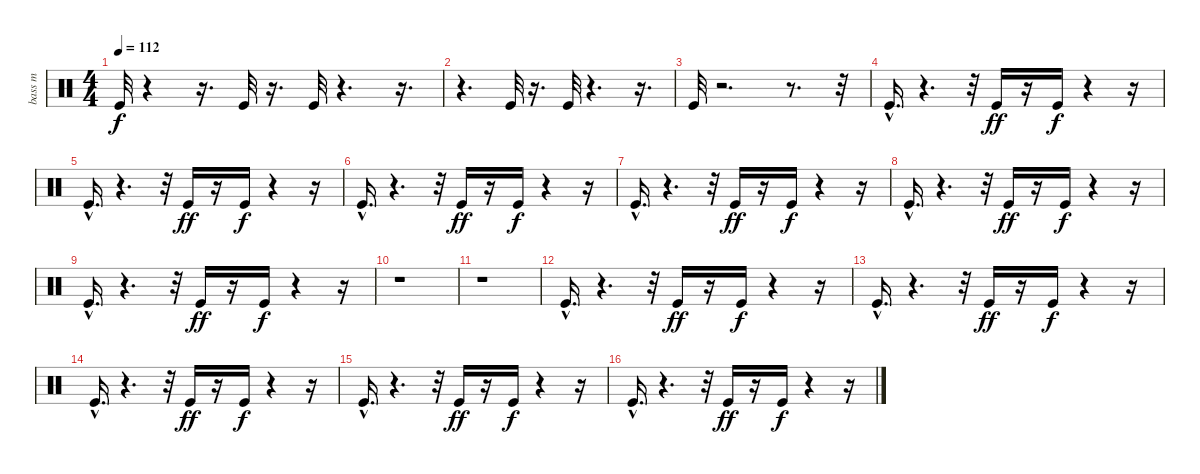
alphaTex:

\track ("bass m" "bass m") {instrument percussion}
\staff {score}
\articulation defaults
\ts (4 4)
\tempo 112
\clef neutral
\ks c "Kick (hit)".32{dy f}
r.4 r.16{d} "Kick (hit)".32 r.16{d} "Kick (hit)".32 r.4{d} r.16{d} |
r.4{d} "Kick (hit)".32 r.16{d} "Kick (hit)".32 r.4{d} r.16{d} |
"Kick (hit)".32 r.2{d} r.8{d} r.32 |
"Kick (hit)"{hac}.16{d} r.4{d} r.32 "Kick (hit)".16{dy ff} r.16 "Kick (hit)".16{dy f} r.4 r.16 |
"Kick (hit)"{hac}.16{d} r.4{d} r.32 "Kick (hit)".16{dy ff} r.16 "Kick (hit)".16{dy f} r.4 r.16 |
"Kick (hit)"{hac}.16{d} r.4{d} r.32 "Kick (hit)".16{dy ff} r.16 "Kick (hit)".16{dy f} r.4 r.16 |
"Kick (hit)"{hac}.16{d} r.4{d} r.32 "Kick (hit)".16{dy ff} r.16 "Kick (hit)".16{dy f} r.4 r.16 |
"Kick (hit)"{hac}.16{d} r.4{d} r.32 "Kick (hit)".16{dy ff} r.16 "Kick (hit)".16{dy f} r.4 r.16 |
"Kick (hit)"{hac}.16{d} r.4{d} r.32 "Kick (hit)".16{dy ff} r.16 "Kick (hit)".16{dy f} r.4 r.16 |
r.1 |
r.1 |
"Kick (hit)"{hac}.16{d} r.4{d} r.32 "Kick (hit)".16{dy ff} r.16 "Kick (hit)".16{dy f} r.4 r.16 |
"Kick (hit)"{hac}.16{d} r.4{d} r.32 "Kick (hit)".16{dy ff} r.16 "Kick (hit)".16{dy f} r.4 r.16 |
"Kick (hit)"{hac}.16{d} r.4{d} r.32 "Kick (hit)".16{dy ff} r.16 "Kick (hit)".16{dy f} r.4 r.16 |
"Kick (hit)"{hac}.16{d} r.4{d} r.32 "Kick (hit)".16{dy ff} r.16 "Kick (hit)".16{dy f} r.4 r.16 |
"Kick (hit)"{hac}.16{d} r.4{d} r.32 "Kick (hit)".16{dy ff} r.16 "Kick (hit)".16{dy f} r.4 r.16
